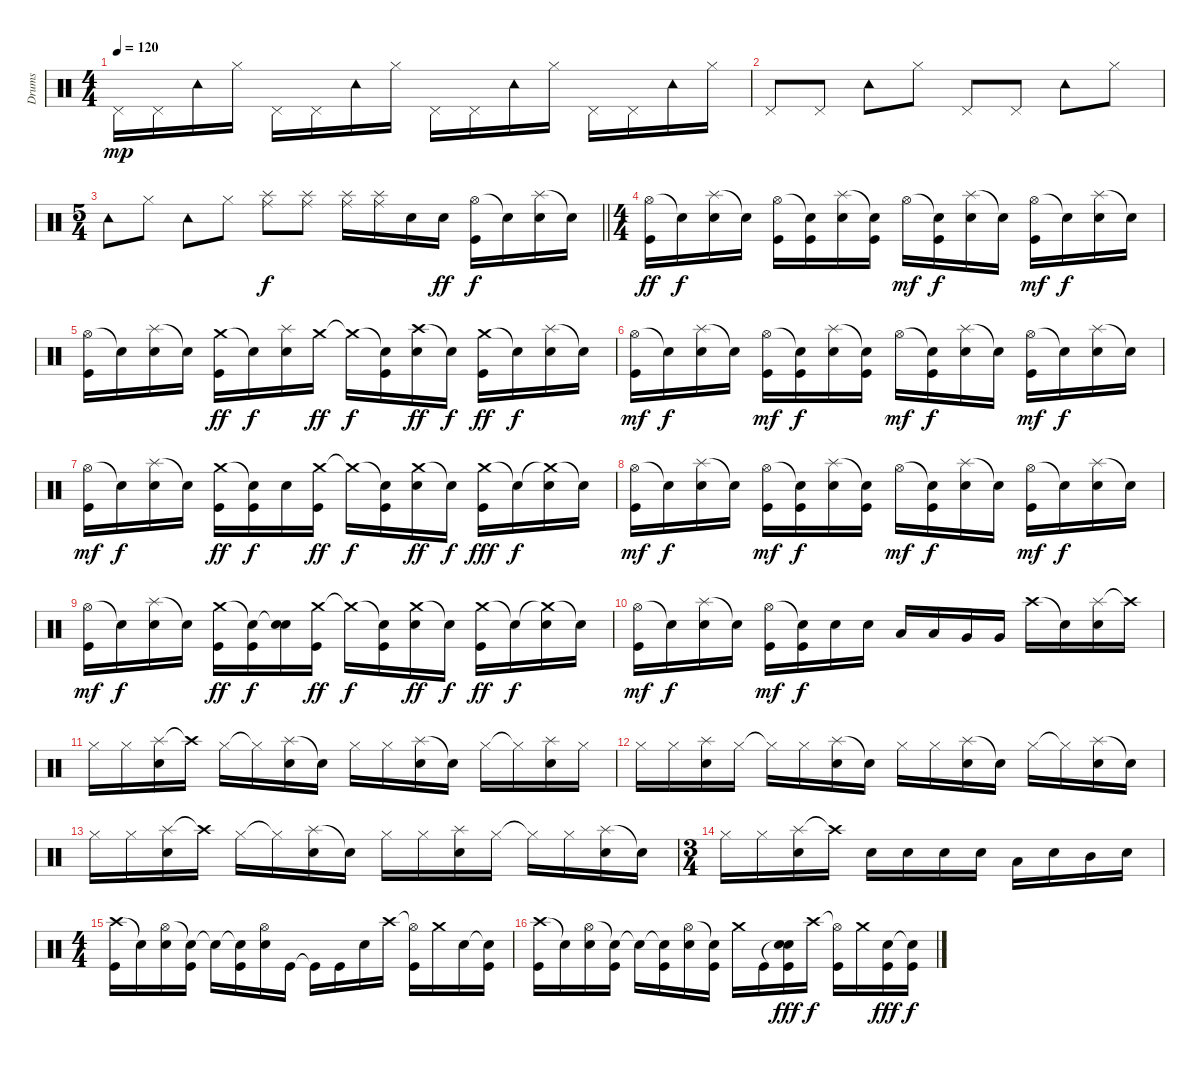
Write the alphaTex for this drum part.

\track ("Drums" "Drums") {instrument percussion}
\staff {score}
\articulation defaults
\ts (4 4)
\tempo 120
\clef neutral
\ks c "Pedal Hi-Hat (hit)".16{dy mp} "Pedal Hi-Hat (hit)".16 "Tambourine (hit)".16 "Hi-Hat (closed)".16 "Pedal Hi-Hat (hit)".16 "Pedal Hi-Hat (hit)".16 "Tambourine (hit)".16 "Hi-Hat (closed)".16 "Pedal Hi-Hat (hit)".16 "Pedal Hi-Hat (hit)".16 "Tambourine (hit)".16 "Hi-Hat (closed)".16 "Pedal Hi-Hat (hit)".16 "Pedal Hi-Hat (hit)".16 "Tambourine (hit)".16 "Hi-Hat (closed)".16
|
"Pedal Hi-Hat (hit)".8 "Pedal Hi-Hat (hit)".8 "Tambourine (hit)".8 "Hi-Hat (closed)".8 "Pedal Hi-Hat (hit)".8 "Pedal Hi-Hat (hit)".8 "Tambourine (hit)".8 "Hi-Hat (closed)".8 |
\ts (5 4)
\barLineRight lightlight "Tambourine (hit)".8 "Hi-Hat (closed)".8 "Tambourine (hit)".8 "Hi-Hat (closed)".8
("Splash (hit)" "Ride (middle)").8{dy f} ("Splash (hit)" "Ride (middle)").8 ("Splash (hit)" "Ride (middle)").16 ("Splash (hit)" "Ride (middle)").16 "Snare (hit) 2".16 "Snare (hit) 2".16{dy ff} ("Hi-Hat (open)" "Kick (hit)").16{dy f} "Snare (hit)"{t}.16 ("Splash (hit)" "Snare (hit) 2").16 "Snare (hit)"{t}.16 |
\ts (4 4)
\section ("" "")
("Hi-Hat (open)" "Kick (hit)").16{dy ff} "Snare (hit)"{t}.16{dy f} ("Splash (hit)" "Snare (hit) 2").16 "Snare (hit)"{t}.16 ("Hi-Hat (open)" "Kick (hit)").16 ("Snare (hit)"{t} "Kick (hit)").16 ("Splash (hit)" "Snare (hit) 2").16 ("Snare (hit)"{t} "Kick (hit)").16 "Hi-Hat (open)".16{dy mf} ("Snare (hit)"{t} "Kick (hit)").16{dy f} ("Splash (hit)" "Snare (hit) 2").16 "Snare (hit)"{t}.16 ("Hi-Hat (open)" "Kick (hit)").16{dy mf} "Snare (hit)"{t}.16{dy f} ("Splash (hit)" "Snare (hit) 2").16 "Snare (hit)"{t}.16 |
("Hi-Hat (open)" "Kick (hit)").16 "Snare (hit)"{t}.16 ("Splash (hit)" "Electric Snare (hit)").16 "Snare (hit)"{t}.16 ("Crash medium (hit)" "Kick (hit)").16{dy ff} "Snare (hit)"{t}.16{dy f} ("Splash (hit)" "Electric Snare (hit)").16 "Crash medium (hit)".16{dy ff} "Crash medium (hit)"{t}.16{dy f} ("Snare (hit)"{t} "Kick (hit)").16 ("Crash high (hit)" "Electric Snare (hit)").16{dy ff} "Snare (hit)"{t}.16{dy f} ("Crash medium (hit)" "Kick (hit)").16{dy ff} "Snare (hit)"{t}.16{dy f} ("Splash (hit)" "Electric Snare (hit)").16 "Snare (hit)"{t}.16 |
("Hi-Hat (open)" "Kick (hit)").16{dy mf} "Snare (hit)"{t}.16{dy f} ("Splash (hit)" "Electric Snare (hit)").16 "Snare (hit)"{t}.16 ("Hi-Hat (open)" "Kick (hit)").16{dy mf} ("Snare (hit)"{t} "Kick (hit)").16{dy f} ("Splash (hit)" "Electric Snare (hit)").16 ("Snare (hit)"{t} "Kick (hit)").16 "Hi-Hat (open)".16{dy mf} ("Snare (hit)"{t} "Kick (hit)").16{dy f} ("Splash (hit)" "Electric Snare (hit)").16 "Snare (hit)"{t}.16 ("Hi-Hat (open)" "Kick (hit)").16{dy mf} "Snare (hit)"{t}.16{dy f} ("Splash (hit)" "Electric Snare (hit)").16 "Snare (hit)"{t}.16 |
("Hi-Hat (open)" "Kick (hit)").16{dy mf} "Snare (hit)"{t}.16{dy f} ("Splash (hit)" "Electric Snare (hit)").16 "Snare (hit)"{t}.16 ("Crash medium (hit)" "Kick (hit)").16{dy ff} ("Snare (hit)"{t} "Kick (hit)").16{dy f} "Electric Snare (hit)".16 ("Crash medium (hit)" "Kick (hit)").16{dy ff} "Crash medium (hit)"{t}.16{dy f} ("Snare (hit)"{t} "Kick (hit)").16 ("Crash medium (hit)" "Electric Snare (hit)").16{dy ff} "Snare (hit)"{t}.16{dy f} ("Crash medium (hit)" "Kick (hit)").16{dy fff} "Snare (hit)"{t}.16{dy f} ("Crash medium (hit)"{t} "Electric Snare (hit)").16 "Snare (hit)"{t}.16 |
("Hi-Hat (open)" "Kick (hit)").16{dy mf} "Snare (hit)"{t}.16{dy f} ("Splash (hit)" "Electric Snare (hit)").16 "Snare (hit)"{t}.16 ("Hi-Hat (open)" "Kick (hit)").16{dy mf} ("Snare (hit)"{t} "Kick (hit)").16{dy f} ("Splash (hit)" "Electric Snare (hit)").16 ("Snare (hit)"{t} "Kick (hit)").16 "Hi-Hat (open)".16{dy mf} ("Snare (hit)"{t} "Kick (hit)").16{dy f} ("Splash (hit)" "Electric Snare (hit)").16 "Snare (hit)"{t}.16 ("Hi-Hat (open)" "Kick (hit)").16{dy mf} "Snare (hit)"{t}.16{dy f} ("Splash (hit)" "Electric Snare (hit)").16 "Snare (hit)"{t}.16 |
("Hi-Hat (open)" "Kick (hit)").16{dy mf} "Snare (hit)"{t}.16{dy f} ("Splash (hit)" "Electric Snare (hit)").16 "Snare (hit)"{t}.16 ("Crash medium (hit)" "Kick (hit)").16{dy ff} ("Snare (hit)"{t} "Kick (hit)").16{dy f} ("Snare (hit)"{t} "Electric Snare (hit)").16 ("Crash medium (hit)" "Kick (hit)").16{dy ff} "Crash medium (hit)"{t}.16{dy f} ("Snare (hit)"{t} "Kick (hit)").16 ("Crash medium (hit)" "Electric Snare (hit)").16{dy ff} "Snare (hit)"{t}.16{dy f} ("Crash medium (hit)" "Kick (hit)").16{dy ff} "Snare (hit)"{t}.16{dy f} ("Crash medium (hit)"{t} "Electric Snare (hit)").16 "Snare (hit)"{t}.16 |
("Hi-Hat (open)" "Kick (hit)").16{dy mf} "Snare (hit)"{t}.16{dy f} ("Splash (hit)" "Electric Snare (hit)").16 "Snare (hit)"{t}.16 ("Hi-Hat (open)" "Kick (hit)").16{dy mf} ("Snare (hit)"{t} "Kick (hit)").16{dy f} "Snare (hit) 2".16 "Snare (hit) 2".16 "Low Tom (hit)".16 "Low Tom (hit)".16 "Very Low Tom (hit)".16 "Very Low Tom (hit)".16 "Crash high (hit)".16 "Snare (hit)"{t}.16 ("Splash (hit)" "Electric Snare (hit)").16 "Crash high (hit)"{t}.16 |
"Hi-Hat (closed)".16 "Hi-Hat (closed)".16 ("Splash (hit)" "Electric Snare (hit)").16 "Crash high (hit)"{t}.16 "Hi-Hat (closed)".16 "Hi-Hat (closed)"{t}.16 ("Splash (hit)" "Electric Snare (hit)").16 "Snare (hit)"{t}.16 "Hi-Hat (closed)".16 "Hi-Hat (closed)".16 ("Splash (hit)" "Electric Snare (hit)").16 "Snare (hit)"{t}.16 "Hi-Hat (closed)".16 "Hi-Hat (closed)"{t}.16 ("Splash (hit)" "Electric Snare (hit)").16 "Hi-Hat (closed)".16 |
"Hi-Hat (closed)".16 "Hi-Hat (closed)".16 ("Splash (hit)" "Electric Snare (hit)").16 "Hi-Hat (closed)".16 "Hi-Hat (closed)"{t}.16 "Hi-Hat (closed)".16 ("Splash (hit)" "Electric Snare (hit)").16 "Snare (hit)"{t}.16 "Hi-Hat (closed)".16 "Hi-Hat (closed)".16 ("Splash (hit)" "Electric Snare (hit)").16 "Snare (hit)"{t}.16 "Hi-Hat (closed)".16 "Hi-Hat (closed)"{t}.16 ("Splash (hit)" "Electric Snare (hit)").16 "Snare (hit)"{t}.16 |
"Hi-Hat (closed)".16 "Hi-Hat (closed)".16 ("Splash (hit)" "Electric Snare (hit)").16 "Crash high (hit)"{t}.16 "Hi-Hat (closed)".16 "Hi-Hat (closed)"{t}.16 ("Splash (hit)" "Electric Snare (hit)").16 "Snare (hit)"{t}.16 "Hi-Hat (closed)".16 "Hi-Hat (closed)".16 ("Splash (hit)" "Electric Snare (hit)").16 "Hi-Hat (closed)".16 "Hi-Hat (closed)"{t}.16 "Hi-Hat (closed)".16 ("Splash (hit)" "Electric Snare (hit)").16 "Snare (hit)"{t}.16 |
\ts (3 4)
"Hi-Hat (closed)".16 "Hi-Hat (closed)".16 ("Splash (hit)" "Electric Snare (hit)").16 "Crash high (hit)"{t}.16 "Electric Snare (hit)".16 "Electric Snare (hit)".16 "Electric Snare (hit)".16 "Electric Snare (hit)".16 "Low Floor Tom (hit)".16 "Electric Snare (hit)".16 "Mid Tom (hit)".16 "Electric Snare (hit)".16 |
\ts (4 4)
("Crash high (hit)" "Kick (hit)").16 "Snare (hit)"{t}.16 ("Hi-Hat (open)" "Electric Snare (hit)").16 ("Snare (hit)"{t} "Kick (hit)").16 "Snare (hit)"{t}.16 ("Snare (hit)"{t} "Kick (hit)").16 ("Hi-Hat (open)" "Electric Snare (hit)").16 "Kick (hit)".16 "Kick (hit)"{t}.16 "Kick (hit)".16 "Electric Snare (hit)".16 "Crash high (hit)".16 ("Hi-Hat (open)"{t} "Kick (hit)").16 "Crash medium (hit)".16 "Electric Snare (hit)".16 ("Snare (hit)"{t} "Kick (hit)").16 |
("Crash high (hit)" "Kick (hit)").16 "Snare (hit)"{t}.16 ("Hi-Hat (open)" "Electric Snare (hit)").16 ("Snare (hit)"{t} "Kick (hit)").16 "Snare (hit)"{t}.16 ("Snare (hit)"{t} "Kick (hit)").16 ("Hi-Hat (open)" "Electric Snare (hit)").16 ("Snare (hit)"{t} "Kick (hit)").16 "Crash medium (hit)".16 "Kick (hit)".16 ("Snare (hit)"{t} "Electric Snare (hit)" "Kick (hit)").16{dy fff} "Crash high (hit)".16{dy f} ("Hi-Hat (open)"{t} "Kick (hit)").16 "Crash medium (hit)".16 ("Electric Snare (hit)" "Kick (hit)").16{dy fff} ("Snare (hit)"{t} "Kick (hit)").16{dy f}
